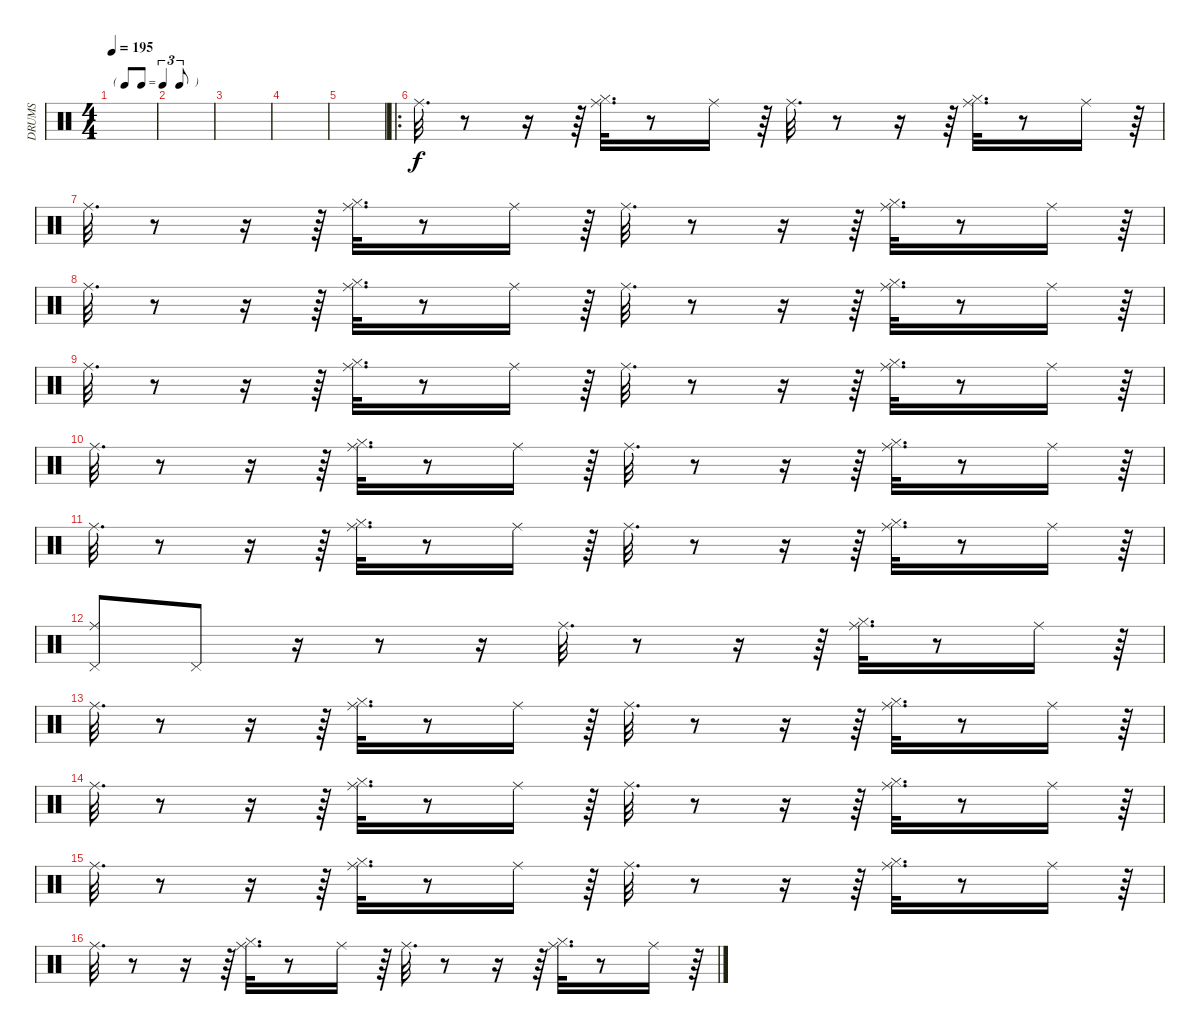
\track ("DRUMS" "DRUMS") {instrument percussion}
\staff {score}
\articulation defaults
\ts (4 4)
\tf triplet8th
\tempo 195
\clef neutral
\ks c
|
|
|
|
|
\ro "Ride (middle)".32{d}
r.8 r.16 r.64 ("Hi-Hat (closed)" "Ride (middle)").32{d} r.8 "Ride (middle)".16 r.64 "Ride (middle)".32{d} r.8 r.16 r.64 ("Hi-Hat (closed)" "Ride (middle)").32{d} r.8 "Ride (middle)".16 r.64 |
"Ride (middle)".32{d} r.8 r.16 r.64 ("Hi-Hat (closed)" "Ride (middle)").32{d} r.8 "Ride (middle)".16 r.64 "Ride (middle)".32{d} r.8 r.16 r.64 ("Hi-Hat (closed)" "Ride (middle)").32{d} r.8 "Ride (middle)".16 r.64 |
"Ride (middle)".32{d} r.8 r.16 r.64 ("Hi-Hat (closed)" "Ride (middle)").32{d} r.8 "Ride (middle)".16 r.64 "Ride (middle)".32{d} r.8 r.16 r.64 ("Hi-Hat (closed)" "Ride (middle)").32{d} r.8 "Ride (middle)".16 r.64 |
"Ride (middle)".32{d} r.8 r.16 r.64 ("Hi-Hat (closed)" "Ride (middle)").32{d} r.8 "Ride (middle)".16 r.64 "Ride (middle)".32{d} r.8 r.16 r.64 ("Hi-Hat (closed)" "Ride (middle)").32{d} r.8 "Ride (middle)".16 r.64 |
"Ride (middle)".32{d} r.8 r.16 r.64 ("Hi-Hat (closed)" "Ride (middle)").32{d} r.8 "Ride (middle)".16 r.64 "Ride (middle)".32{d} r.8 r.16 r.64 ("Hi-Hat (closed)" "Ride (middle)").32{d} r.8 "Ride (middle)".16 r.64 |
"Ride (middle)".32{d} r.8 r.16 r.64 ("Hi-Hat (closed)" "Ride (middle)").32{d} r.8 "Ride (middle)".16 r.64 "Ride (middle)".32{d} r.8 r.16 r.64 ("Hi-Hat (closed)" "Ride (middle)").32{d} r.8 "Ride (middle)".16 r.64 |
("Ride (middle)" "Pedal Hi-Hat (hit)").8 "Pedal Hi-Hat (hit)".8 r.16 r.8 r.16 "Ride (middle)".32{d} r.8 r.16 r.64 ("Hi-Hat (closed)" "Ride (middle)").32{d} r.8 "Ride (middle)".16 r.64 |
"Ride (middle)".32{d} r.8 r.16 r.64 ("Hi-Hat (closed)" "Ride (middle)").32{d} r.8 "Ride (middle)".16 r.64 "Ride (middle)".32{d} r.8 r.16 r.64 ("Hi-Hat (closed)" "Ride (middle)").32{d} r.8 "Ride (middle)".16 r.64 |
"Ride (middle)".32{d} r.8 r.16 r.64 ("Hi-Hat (closed)" "Ride (middle)").32{d} r.8 "Ride (middle)".16 r.64 "Ride (middle)".32{d} r.8 r.16 r.64 ("Hi-Hat (closed)" "Ride (middle)").32{d} r.8 "Ride (middle)".16 r.64 |
"Ride (middle)".32{d} r.8 r.16 r.64 ("Hi-Hat (closed)" "Ride (middle)").32{d} r.8 "Ride (middle)".16 r.64 "Ride (middle)".32{d} r.8 r.16 r.64 ("Hi-Hat (closed)" "Ride (middle)").32{d} r.8 "Ride (middle)".16 r.64 |
"Ride (middle)".32{d} r.8 r.16 r.64 ("Hi-Hat (closed)" "Ride (middle)").32{d} r.8 "Ride (middle)".16 r.64 "Ride (middle)".32{d} r.8 r.16 r.64 ("Hi-Hat (closed)" "Ride (middle)").32{d} r.8 "Ride (middle)".16 r.64
